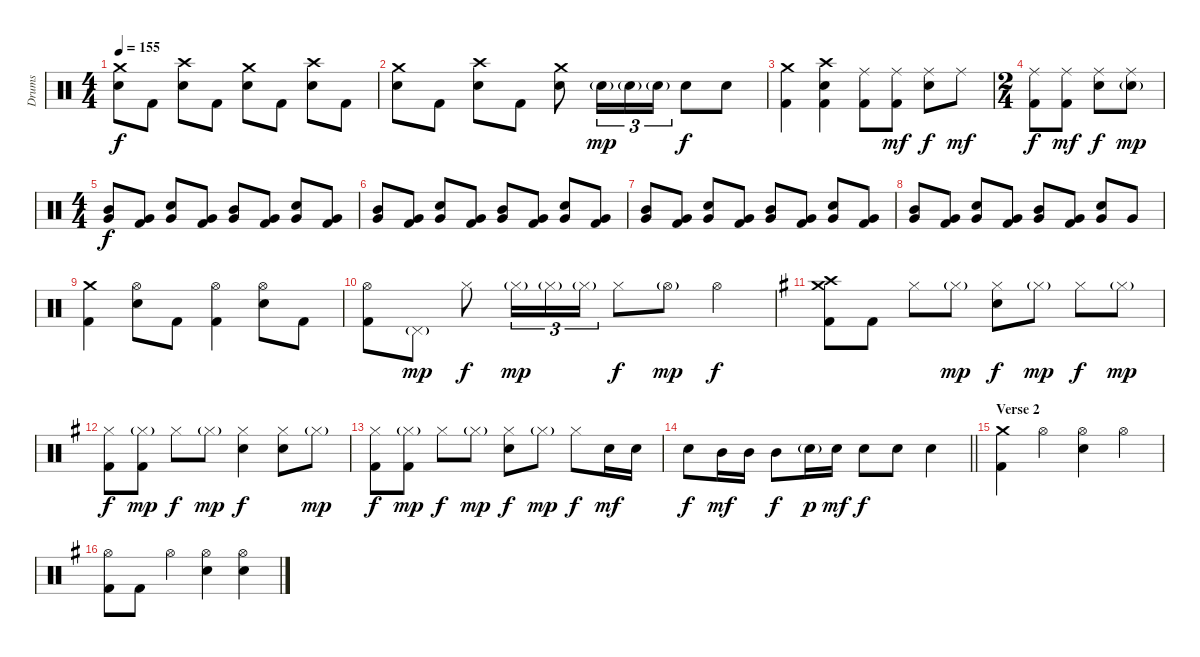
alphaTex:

\track ("Drums" "Drums") {instrument percussion}
\staff {score}
\articulation defaults
\ts (4 4)
\tempo 155
\clef neutral
\ks aminor
("Crash medium (hit)" "Electric Snare (hit)").8{dy f} "Kick (hit) 2".8 ("Crash high (hit)" "Electric Snare (hit)").8 "Kick (hit) 2".8 ("Crash medium (hit)" "Electric Snare (hit)").8 "Kick (hit) 2".8 ("Crash high (hit)" "Electric Snare (hit)").8 "Kick (hit) 2".8 |
("Crash medium (hit)" "Electric Snare (hit)").8 "Kick (hit) 2".8 ("Crash high (hit)" "Electric Snare (hit)").8 "Kick (hit) 2".8 ("Crash medium (hit)" "Electric Snare (hit)").8 "Electric Snare (hit)"{g}.16{tu (3 2) dy mp} "Electric Snare (hit)"{g}.16{tu (3 2)} "Electric Snare (hit)"{g}.16{tu (3 2)} "Electric Snare (hit)".8{dy f} "Electric Snare (hit)".8 |
("Crash medium (hit)" "Kick (hit) 2").4 ("Crash high (hit)" "Electric Snare (hit)" "Kick (hit) 2").4 ("Ride (middle)" "Kick (hit) 2").8 ("Ride (middle)" "Kick (hit) 2").8{dy mf} ("Ride (middle)" "Electric Snare (hit)").8{dy f} "Ride (middle)".8{dy mf} |
\ts (2 4)
("Ride (middle)" "Kick (hit) 2").8{dy f} ("Ride (middle)" "Kick (hit) 2").8{dy mf} ("Ride (middle)" "Electric Snare (hit)").8{dy f} ("Ride (middle)" "Electric Snare (hit)"{g}).8{dy mp} |
\ts (4 4)
("Mid Tom (hit)" "Very Low Tom (hit)").8{dy f} ("Very Low Tom (hit)" "Kick (hit) 2").8 ("Electric Snare (hit)" "Very Low Tom (hit)").8 ("Very Low Tom (hit)" "Kick (hit) 2").8 ("Mid Tom (hit)" "Very Low Tom (hit)").8 ("Very Low Tom (hit)" "Kick (hit) 2").8 ("Electric Snare (hit)" "Very Low Tom (hit)").8 ("Very Low Tom (hit)" "Kick (hit) 2").8 |
("Mid Tom (hit)" "Very Low Tom (hit)").8 ("Very Low Tom (hit)" "Kick (hit) 2").8 ("Electric Snare (hit)" "Very Low Tom (hit)").8 ("Very Low Tom (hit)" "Kick (hit) 2").8 ("Mid Tom (hit)" "Very Low Tom (hit)").8 ("Very Low Tom (hit)" "Kick (hit) 2").8 ("Electric Snare (hit)" "Very Low Tom (hit)").8 ("Very Low Tom (hit)" "Kick (hit) 2").8 |
("Mid Tom (hit)" "Very Low Tom (hit)").8 ("Very Low Tom (hit)" "Kick (hit) 2").8 ("Electric Snare (hit)" "Very Low Tom (hit)").8 ("Very Low Tom (hit)" "Kick (hit) 2").8 ("Mid Tom (hit)" "Very Low Tom (hit)").8 ("Very Low Tom (hit)" "Kick (hit) 2").8 ("Electric Snare (hit)" "Very Low Tom (hit)").8 ("Very Low Tom (hit)" "Kick (hit) 2").8 |
("Mid Tom (hit)" "Very Low Tom (hit)").8 ("Very Low Tom (hit)" "Kick (hit) 2").8 ("Electric Snare (hit)" "Very Low Tom (hit)").8 ("Very Low Tom (hit)" "Kick (hit) 2").8 ("Mid Tom (hit)" "Very Low Tom (hit)").8 ("Very Low Tom (hit)" "Kick (hit) 2").8 ("Electric Snare (hit)" "Very Low Tom (hit)").8 "Very Low Tom (hit)".8 |
("Crash medium (hit)" "Kick (hit) 2").4 ("Hi-Hat (open)" "Electric Snare (hit)").8 "Kick (hit) 2".8 ("Hi-Hat (open)" "Kick (hit) 2").4 ("Hi-Hat (open)" "Electric Snare (hit)").8 "Kick (hit) 2".8 |
("Hi-Hat (open)" "Kick (hit) 2").8 "Pedal Hi-Hat (hit)"{g}.8{dy mp} "Hi-Hat (closed)".8{dy f} "Hi-Hat (closed)"{g}.16{tu (3 2) dy mp} "Hi-Hat (closed)"{g}.16{tu (3 2)} "Hi-Hat (closed)"{g}.16{tu (3 2)} "Hi-Hat (closed)".8{dy f} "Hi-Hat (open)"{g}.8{dy mp} "Hi-Hat (open)".4{dy f} |
\ks eminor
("Crash high (hit)" "Crash medium (hit)" "Kick (hit) 2").8 "Kick (hit) 2".8 "Hi-Hat (closed)".8 "Hi-Hat (closed)"{g}.8{dy mp} ("Hi-Hat (closed)" "Electric Snare (hit)").8{dy f} "Hi-Hat (closed)"{g}.8{dy mp} "Hi-Hat (closed)".8{dy f} "Hi-Hat (closed)"{g}.8{dy mp} |
("Hi-Hat (closed)" "Kick (hit) 2").8{dy f} ("Hi-Hat (closed)"{g} "Kick (hit) 2").8{dy mp} "Hi-Hat (closed)".8{dy f} "Hi-Hat (closed)"{g}.8{dy mp} ("Hi-Hat (closed)" "Electric Snare (hit)").4{dy f} ("Hi-Hat (closed)" "Electric Snare (hit)").8 "Hi-Hat (closed)"{g}.8{dy mp} |
("Hi-Hat (closed)" "Kick (hit) 2").8{dy f} ("Hi-Hat (closed)"{g} "Kick (hit) 2").8{dy mp} "Hi-Hat (closed)".8{dy f} "Hi-Hat (closed)"{g}.8{dy mp} ("Hi-Hat (closed)" "Electric Snare (hit)").8{dy f} "Hi-Hat (closed)"{g}.8{dy mp} "Hi-Hat (closed)".8{dy f} "Electric Snare (hit)".16{dy mf} "Electric Snare (hit)".16 |
\barLineRight lightlight "Electric Snare (hit)".8{dy f} "Mid Tom (hit)".16{dy mf} "Mid Tom (hit)".16 "Mid Tom (hit)".8{dy f} "Electric Snare (hit)"{g}.16{dy p} "Electric Snare (hit)".16{dy mf} "Electric Snare (hit)".8{dy f} "Electric Snare (hit)".8 "Electric Snare (hit)".4
|
\section ("" "Verse 2")
("Crash medium (hit)" "Kick (hit) 2").4 "Hi-Hat (open)".4 ("Hi-Hat (open)" "Electric Snare (hit)").4 "Hi-Hat (open)".4 |
("Hi-Hat (open)" "Kick (hit) 2").8 "Kick (hit) 2".8 "Hi-Hat (open)".4 ("Hi-Hat (open)" "Electric Snare (hit)").4 ("Hi-Hat (open)" "Electric Snare (hit)").4
